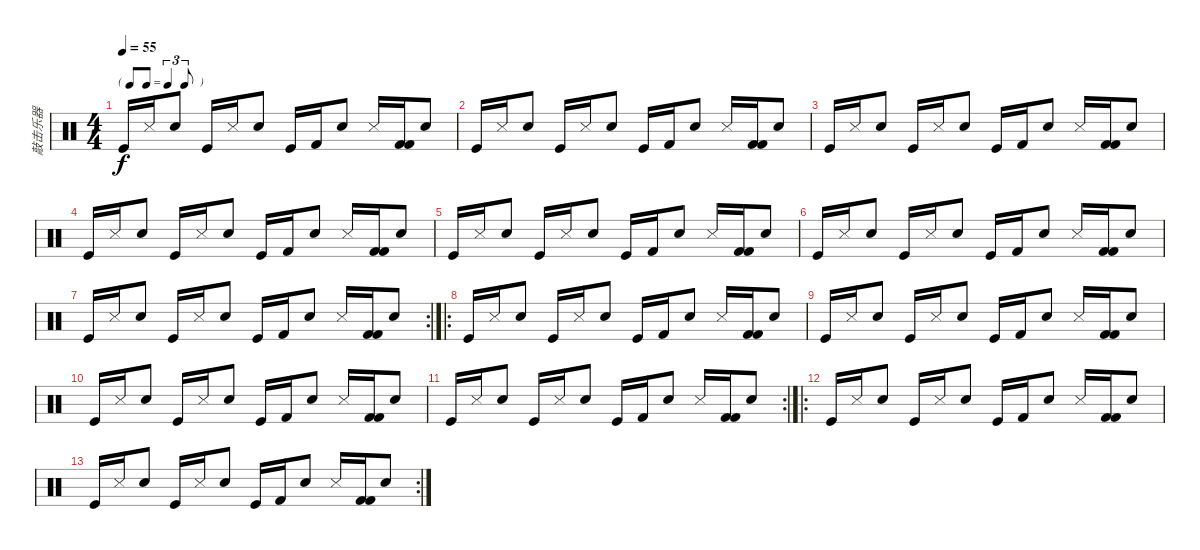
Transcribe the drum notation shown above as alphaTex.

\track ("敲击乐器" "敲击乐器") {instrument percussion}
\staff {score}
\articulation defaults
\ts (4 4)
\tf triplet8th
\tempo 55
\clef neutral
\ks c "Kick (hit)".16{dy f} "Snare (side stick) 3".16 "Snare (hit) 2".8 "Kick (hit)".16 "Snare (side stick) 3".16 "Snare (hit) 2".8 "Kick (hit)".16 "Kick (hit) 2".16 "Snare (hit) 2".8 "Snare (side stick) 3".16
("Kick (hit) 2" "Kick (hit) 2").16 "Snare (hit) 2".8 |
"Kick (hit)".16 "Snare (side stick) 3".16 "Snare (hit) 2".8 "Kick (hit)".16 "Snare (side stick) 3".16 "Snare (hit) 2".8 "Kick (hit)".16 "Kick (hit) 2".16 "Snare (hit) 2".8 "Snare (side stick) 3".16 ("Kick (hit) 2" "Kick (hit) 2").16 "Snare (hit) 2".8 |
"Kick (hit)".16 "Snare (side stick) 3".16 "Snare (hit) 2".8 "Kick (hit)".16 "Snare (side stick) 3".16 "Snare (hit) 2".8 "Kick (hit)".16 "Kick (hit) 2".16 "Snare (hit) 2".8 "Snare (side stick) 3".16 ("Kick (hit) 2" "Kick (hit) 2").16 "Snare (hit) 2".8 |
"Kick (hit)".16 "Snare (side stick) 3".16 "Snare (hit) 2".8 "Kick (hit)".16 "Snare (side stick) 3".16 "Snare (hit) 2".8 "Kick (hit)".16 "Kick (hit) 2".16 "Snare (hit) 2".8 "Snare (side stick) 3".16 ("Kick (hit) 2" "Kick (hit) 2").16 "Snare (hit) 2".8 |
"Kick (hit)".16 "Snare (side stick) 3".16 "Snare (hit) 2".8 "Kick (hit)".16 "Snare (side stick) 3".16 "Snare (hit) 2".8 "Kick (hit)".16 "Kick (hit) 2".16 "Snare (hit) 2".8 "Snare (side stick) 3".16 ("Kick (hit) 2" "Kick (hit) 2").16 "Snare (hit) 2".8 |
"Kick (hit)".16 "Snare (side stick) 3".16 "Snare (hit) 2".8 "Kick (hit)".16 "Snare (side stick) 3".16 "Snare (hit) 2".8 "Kick (hit)".16 "Kick (hit) 2".16 "Snare (hit) 2".8 "Snare (side stick) 3".16 ("Kick (hit) 2" "Kick (hit) 2").16 "Snare (hit) 2".8 |
\rc 2 "Kick (hit)".16 "Snare (side stick) 3".16 "Snare (hit) 2".8 "Kick (hit)".16 "Snare (side stick) 3".16 "Snare (hit) 2".8 "Kick (hit)".16 "Kick (hit) 2".16 "Snare (hit) 2".8 "Snare (side stick) 3".16
("Kick (hit) 2" "Kick (hit) 2").16 "Snare (hit) 2".8 |
\ro "Kick (hit)".16 "Snare (side stick) 3".16 "Snare (hit) 2".8 "Kick (hit)".16 "Snare (side stick) 3".16 "Snare (hit) 2".8 "Kick (hit)".16 "Kick (hit) 2".16 "Snare (hit) 2".8 "Snare (side stick) 3".16
("Kick (hit) 2" "Kick (hit) 2").16 "Snare (hit) 2".8 |
"Kick (hit)".16 "Snare (side stick) 3".16 "Snare (hit) 2".8 "Kick (hit)".16 "Snare (side stick) 3".16 "Snare (hit) 2".8 "Kick (hit)".16 "Kick (hit) 2".16 "Snare (hit) 2".8 "Snare (side stick) 3".16 ("Kick (hit) 2" "Kick (hit) 2").16 "Snare (hit) 2".8 |
"Kick (hit)".16 "Snare (side stick) 3".16 "Snare (hit) 2".8 "Kick (hit)".16 "Snare (side stick) 3".16 "Snare (hit) 2".8 "Kick (hit)".16 "Kick (hit) 2".16 "Snare (hit) 2".8 "Snare (side stick) 3".16 ("Kick (hit) 2" "Kick (hit) 2").16 "Snare (hit) 2".8 |
\rc 2 "Kick (hit)".16 "Snare (side stick) 3".16 "Snare (hit) 2".8 "Kick (hit)".16 "Snare (side stick) 3".16 "Snare (hit) 2".8 "Kick (hit)".16 "Kick (hit) 2".16 "Snare (hit) 2".8 "Snare (side stick) 3".16
("Kick (hit) 2" "Kick (hit) 2").16 "Snare (hit) 2".8 |
\ro "Kick (hit)".16 "Snare (side stick) 3".16 "Snare (hit) 2".8 "Kick (hit)".16 "Snare (side stick) 3".16 "Snare (hit) 2".8 "Kick (hit)".16 "Kick (hit) 2".16 "Snare (hit) 2".8 "Snare (side stick) 3".16
("Kick (hit) 2" "Kick (hit) 2").16 "Snare (hit) 2".8 |
\rc 2 "Kick (hit)".16 "Snare (side stick) 3".16 "Snare (hit) 2".8 "Kick (hit)".16 "Snare (side stick) 3".16 "Snare (hit) 2".8 "Kick (hit)".16 "Kick (hit) 2".16 "Snare (hit) 2".8 "Snare (side stick) 3".16
("Kick (hit) 2" "Kick (hit) 2").16 "Snare (hit) 2".8
